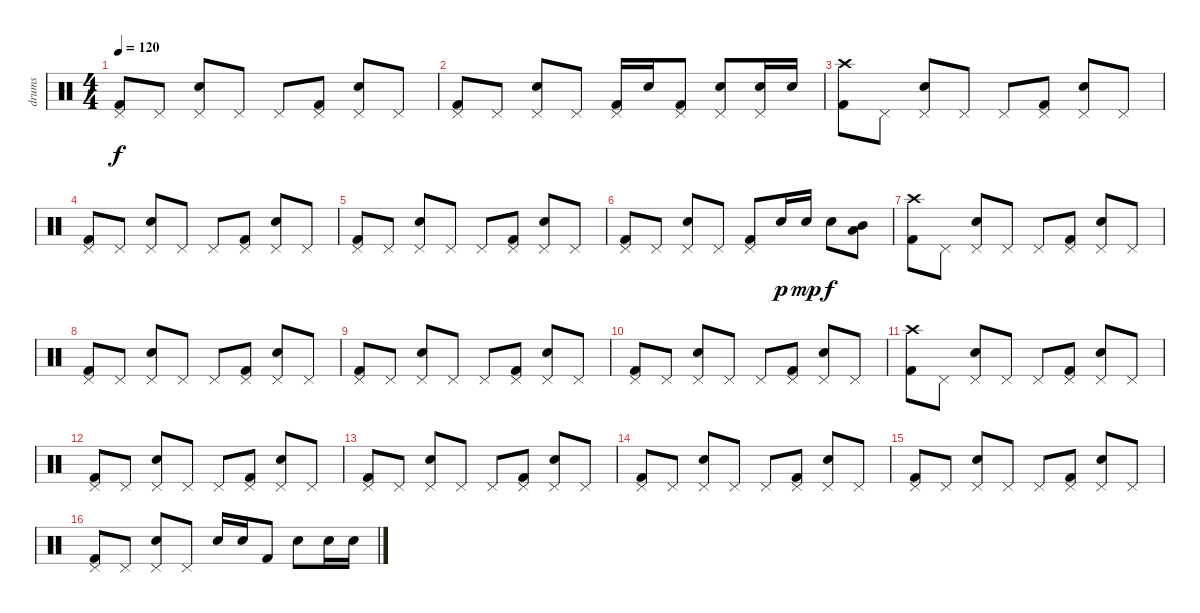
\track ("drums" "drums") {instrument percussion}
\staff {score}
\articulation defaults
\ts (4 4)
\tempo 120
\clef neutral
\ks c
("Pedal Hi-Hat (hit)" "Kick (hit) 2").8{dy f} "Pedal Hi-Hat (hit)".8 ("Pedal Hi-Hat (hit)" "Electric Snare (hit)").8 "Pedal Hi-Hat (hit)".8 "Pedal Hi-Hat (hit)".8 ("Pedal Hi-Hat (hit)" "Kick (hit) 2").8 ("Pedal Hi-Hat (hit)" "Electric Snare (hit)").8 "Pedal Hi-Hat (hit)".8 |
("Pedal Hi-Hat (hit)" "Kick (hit) 2").8 "Pedal Hi-Hat (hit)".8 ("Pedal Hi-Hat (hit)" "Electric Snare (hit)").8 "Pedal Hi-Hat (hit)".8 ("Pedal Hi-Hat (hit)" "Kick (hit) 2").16 "Electric Snare (hit)".16 ("Pedal Hi-Hat (hit)" "Kick (hit) 2").8 ("Pedal Hi-Hat (hit)" "Electric Snare (hit)").8 ("Pedal Hi-Hat (hit)" "Electric Snare (hit)").16 "Electric Snare (hit)".16 |
("Crash high (hit)" "Kick (hit) 2").8 "Pedal Hi-Hat (hit)".8 ("Pedal Hi-Hat (hit)" "Electric Snare (hit)").8 "Pedal Hi-Hat (hit)".8 "Pedal Hi-Hat (hit)".8 ("Pedal Hi-Hat (hit)" "Kick (hit) 2").8 ("Pedal Hi-Hat (hit)" "Electric Snare (hit)").8 "Pedal Hi-Hat (hit)".8 |
("Pedal Hi-Hat (hit)" "Kick (hit) 2").8 "Pedal Hi-Hat (hit)".8 ("Pedal Hi-Hat (hit)" "Electric Snare (hit)").8 "Pedal Hi-Hat (hit)".8 "Pedal Hi-Hat (hit)".8 ("Pedal Hi-Hat (hit)" "Kick (hit) 2").8 ("Pedal Hi-Hat (hit)" "Electric Snare (hit)").8 "Pedal Hi-Hat (hit)".8 |
("Pedal Hi-Hat (hit)" "Kick (hit) 2").8 "Pedal Hi-Hat (hit)".8 ("Pedal Hi-Hat (hit)" "Electric Snare (hit)").8 "Pedal Hi-Hat (hit)".8 "Pedal Hi-Hat (hit)".8 ("Pedal Hi-Hat (hit)" "Kick (hit) 2").8 ("Pedal Hi-Hat (hit)" "Electric Snare (hit)").8 "Pedal Hi-Hat (hit)".8 |
("Pedal Hi-Hat (hit)" "Kick (hit) 2").8 "Pedal Hi-Hat (hit)".8 ("Pedal Hi-Hat (hit)" "Electric Snare (hit)").8 "Pedal Hi-Hat (hit)".8 ("Pedal Hi-Hat (hit)" "Kick (hit) 2").8 "Electric Snare (hit)".16{dy p} "Electric Snare (hit)".16{dy mp} "Electric Snare (hit)".8{dy f} ("Mid Tom (hit)" "Low Tom (hit)").8 |
("Crash high (hit)" "Kick (hit) 2").8 "Pedal Hi-Hat (hit)".8 ("Pedal Hi-Hat (hit)" "Electric Snare (hit)").8 "Pedal Hi-Hat (hit)".8 "Pedal Hi-Hat (hit)".8 ("Pedal Hi-Hat (hit)" "Kick (hit) 2").8 ("Pedal Hi-Hat (hit)" "Electric Snare (hit)").8 "Pedal Hi-Hat (hit)".8 |
("Pedal Hi-Hat (hit)" "Kick (hit) 2").8 "Pedal Hi-Hat (hit)".8 ("Pedal Hi-Hat (hit)" "Electric Snare (hit)").8 "Pedal Hi-Hat (hit)".8 "Pedal Hi-Hat (hit)".8 ("Pedal Hi-Hat (hit)" "Kick (hit) 2").8 ("Pedal Hi-Hat (hit)" "Electric Snare (hit)").8 "Pedal Hi-Hat (hit)".8 |
("Pedal Hi-Hat (hit)" "Kick (hit) 2").8 "Pedal Hi-Hat (hit)".8 ("Pedal Hi-Hat (hit)" "Electric Snare (hit)").8 "Pedal Hi-Hat (hit)".8 "Pedal Hi-Hat (hit)".8 ("Pedal Hi-Hat (hit)" "Kick (hit) 2").8 ("Pedal Hi-Hat (hit)" "Electric Snare (hit)").8 "Pedal Hi-Hat (hit)".8 |
("Pedal Hi-Hat (hit)" "Kick (hit) 2").8 "Pedal Hi-Hat (hit)".8 ("Pedal Hi-Hat (hit)" "Electric Snare (hit)").8 "Pedal Hi-Hat (hit)".8 "Pedal Hi-Hat (hit)".8 ("Pedal Hi-Hat (hit)" "Kick (hit) 2").8 ("Pedal Hi-Hat (hit)" "Electric Snare (hit)").8 "Pedal Hi-Hat (hit)".8 |
("Crash high (hit)" "Kick (hit) 2").8 "Pedal Hi-Hat (hit)".8 ("Pedal Hi-Hat (hit)" "Electric Snare (hit)").8 "Pedal Hi-Hat (hit)".8 "Pedal Hi-Hat (hit)".8 ("Pedal Hi-Hat (hit)" "Kick (hit) 2").8 ("Pedal Hi-Hat (hit)" "Electric Snare (hit)").8 "Pedal Hi-Hat (hit)".8 |
("Pedal Hi-Hat (hit)" "Kick (hit) 2").8 "Pedal Hi-Hat (hit)".8 ("Pedal Hi-Hat (hit)" "Electric Snare (hit)").8 "Pedal Hi-Hat (hit)".8 "Pedal Hi-Hat (hit)".8 ("Pedal Hi-Hat (hit)" "Kick (hit) 2").8 ("Pedal Hi-Hat (hit)" "Electric Snare (hit)").8 "Pedal Hi-Hat (hit)".8 |
("Pedal Hi-Hat (hit)" "Kick (hit) 2").8 "Pedal Hi-Hat (hit)".8 ("Pedal Hi-Hat (hit)" "Electric Snare (hit)").8 "Pedal Hi-Hat (hit)".8 "Pedal Hi-Hat (hit)".8 ("Pedal Hi-Hat (hit)" "Kick (hit) 2").8 ("Pedal Hi-Hat (hit)" "Electric Snare (hit)").8 "Pedal Hi-Hat (hit)".8 |
("Pedal Hi-Hat (hit)" "Kick (hit) 2").8 "Pedal Hi-Hat (hit)".8 ("Pedal Hi-Hat (hit)" "Electric Snare (hit)").8 "Pedal Hi-Hat (hit)".8 "Pedal Hi-Hat (hit)".8 ("Pedal Hi-Hat (hit)" "Kick (hit) 2").8 ("Pedal Hi-Hat (hit)" "Electric Snare (hit)").8 "Pedal Hi-Hat (hit)".8 |
("Pedal Hi-Hat (hit)" "Kick (hit) 2").8 "Pedal Hi-Hat (hit)".8 ("Pedal Hi-Hat (hit)" "Electric Snare (hit)").8 "Pedal Hi-Hat (hit)".8 "Pedal Hi-Hat (hit)".8 ("Pedal Hi-Hat (hit)" "Kick (hit) 2").8 ("Pedal Hi-Hat (hit)" "Electric Snare (hit)").8 "Pedal Hi-Hat (hit)".8 |
("Pedal Hi-Hat (hit)" "Kick (hit) 2").8 "Pedal Hi-Hat (hit)".8 ("Pedal Hi-Hat (hit)" "Electric Snare (hit)").8 "Pedal Hi-Hat (hit)".8 "Electric Snare (hit)".16 "Electric Snare (hit)".16 "Kick (hit) 2".8 "Electric Snare (hit)".8 "Electric Snare (hit)".16 "Electric Snare (hit)".16
